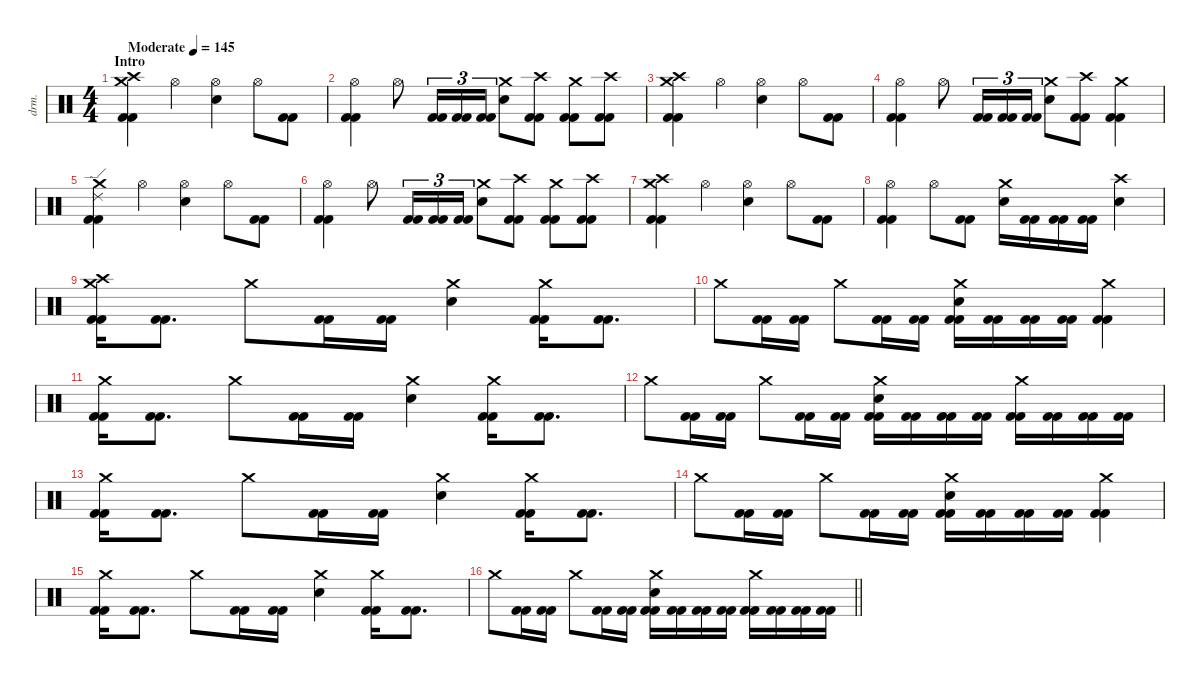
\defaultSystemsLayout 4
\hideDynamics
\bracketExtendMode nobrackets
\otherSystemsTrackNameOrientation horizontal
\track ("Chris Adler" "drm.") {instrument percussion}
\staff {score}
\articulation defaults
\ts (4 4)
\beaming (8 2 2 2 2)
\section ("" "Intro")
\tempo (145 "Moderate")
\clef neutral
\ks c
("Crash medium (hit)" "Crash high (hit)" "Kick (hit) 2" "Kick (hit) 2").4{dy f} "Hi-Hat (open)".4 ("Hi-Hat (open)" "Snare (hit) 2").4 "Hi-Hat (open)".8 ("Kick (hit) 2" "Kick (hit) 2").8 |
("Hi-Hat (open)" "Kick (hit) 2" "Kick (hit) 2").4 "Hi-Hat (open)".8 ("Kick (hit) 2" "Kick (hit) 2").16{tu (3 2)} ("Kick (hit) 2" "Kick (hit) 2").16{tu (3 2)} ("Kick (hit) 2" "Kick (hit) 2").16{tu (3 2)} ("Crash medium (hit)" "Snare (hit) 2").8 ("Crash high (hit)" "Kick (hit) 2" "Kick (hit) 2").8 ("Crash medium (hit)" "Kick (hit) 2" "Kick (hit) 2").8 ("Crash high (hit)" "Kick (hit) 2" "Kick (hit) 2").8 |
("Crash medium (hit)" "Crash high (hit)" "Kick (hit) 2" "Kick (hit) 2").4 "Hi-Hat (open)".4 ("Hi-Hat (open)" "Snare (hit) 2").4 "Hi-Hat (open)".8 ("Kick (hit) 2" "Kick (hit) 2").8 |
("Hi-Hat (open)" "Kick (hit) 2" "Kick (hit) 2").4 "Hi-Hat (open)".8 ("Kick (hit) 2" "Kick (hit) 2").16{tu (3 2)} ("Kick (hit) 2" "Kick (hit) 2").16{tu (3 2)} ("Kick (hit) 2" "Kick (hit) 2").16{tu (3 2)} ("Crash medium (hit)" "Snare (hit) 2").8 ("Crash high (hit)" "Kick (hit) 2" "Kick (hit) 2").8 ("Crash medium (hit)" "Kick (hit) 2" "Kick (hit) 2").4 |
("Crash medium (hit)" "Ride (edge) 2" "Kick (hit) 2" "Kick (hit) 2").4 "Hi-Hat (open)".4 ("Hi-Hat (open)" "Snare (hit) 2").4 "Hi-Hat (open)".8 ("Kick (hit) 2" "Kick (hit) 2").8 |
("Hi-Hat (open)" "Kick (hit) 2" "Kick (hit) 2").4 "Hi-Hat (open)".8 ("Kick (hit) 2" "Kick (hit) 2").16{tu (3 2)} ("Kick (hit) 2" "Kick (hit) 2").16{tu (3 2)} ("Kick (hit) 2" "Kick (hit) 2").16{tu (3 2)} ("Crash medium (hit)" "Snare (hit) 2").8 ("Crash high (hit)" "Kick (hit) 2" "Kick (hit) 2").8 ("Crash medium (hit)" "Kick (hit) 2" "Kick (hit) 2").8 ("Crash high (hit)" "Kick (hit) 2" "Kick (hit) 2").8 |
("Crash medium (hit)" "Crash high (hit)" "Kick (hit) 2" "Kick (hit) 2").4 "Hi-Hat (open)".4 ("Hi-Hat (open)" "Snare (hit) 2").4 "Hi-Hat (open)".8 ("Kick (hit) 2" "Kick (hit) 2").8 |
("Hi-Hat (open)" "Kick (hit) 2" "Kick (hit) 2").4 "Hi-Hat (open)".8 ("Kick (hit) 2" "Kick (hit) 2").8 ("Crash medium (hit)" "Snare (hit) 2").16 ("Kick (hit) 2" "Kick (hit) 2").16 ("Kick (hit) 2" "Kick (hit) 2").16 ("Kick (hit) 2" "Kick (hit) 2").16 ("Crash high (hit)" "Snare (hit) 2").4 |
("Crash medium (hit)" "Crash high (hit)" "Kick (hit) 2" "Kick (hit) 2").16 ("Kick (hit) 2" "Kick (hit) 2").8{d} "Crash medium (hit)".8 ("Kick (hit) 2" "Kick (hit) 2").16 ("Kick (hit) 2" "Kick (hit) 2").16 ("Crash medium (hit)" "Snare (hit) 2").4 ("Crash medium (hit)" "Kick (hit) 2" "Kick (hit) 2").16 ("Kick (hit) 2" "Kick (hit) 2").8{d} |
"Crash medium (hit)".8 ("Kick (hit) 2" "Kick (hit) 2").16 ("Kick (hit) 2" "Kick (hit) 2").16 "Crash medium (hit)".8 ("Kick (hit) 2" "Kick (hit) 2").16 ("Kick (hit) 2" "Kick (hit) 2").16 ("Crash medium (hit)" "Snare (hit) 2" "Kick (hit) 2" "Kick (hit) 2").16 ("Kick (hit) 2" "Kick (hit) 2").16 ("Kick (hit) 2" "Kick (hit) 2").16 ("Kick (hit) 2" "Kick (hit) 2").16 ("Crash medium (hit)" "Kick (hit) 2" "Kick (hit) 2").4 |
("Crash medium (hit)" "Kick (hit) 2" "Kick (hit) 2").16 ("Kick (hit) 2" "Kick (hit) 2").8{d} "Crash medium (hit)".8 ("Kick (hit) 2" "Kick (hit) 2").16 ("Kick (hit) 2" "Kick (hit) 2").16 ("Crash medium (hit)" "Snare (hit) 2").4 ("Crash medium (hit)" "Kick (hit) 2" "Kick (hit) 2").16 ("Kick (hit) 2" "Kick (hit) 2").8{d} |
"Crash medium (hit)".8 ("Kick (hit) 2" "Kick (hit) 2").16 ("Kick (hit) 2" "Kick (hit) 2").16 "Crash medium (hit)".8 ("Kick (hit) 2" "Kick (hit) 2").16 ("Kick (hit) 2" "Kick (hit) 2").16 ("Crash medium (hit)" "Snare (hit) 2" "Kick (hit) 2" "Kick (hit) 2").16 ("Kick (hit) 2" "Kick (hit) 2").16 ("Kick (hit) 2" "Kick (hit) 2").16 ("Kick (hit) 2" "Kick (hit) 2").16 ("Crash medium (hit)" "Kick (hit) 2" "Kick (hit) 2").16 ("Kick (hit) 2" "Kick (hit) 2").16 ("Kick (hit) 2" "Kick (hit) 2").16 ("Kick (hit) 2" "Kick (hit) 2").16 |
("Crash medium (hit)" "Kick (hit) 2" "Kick (hit) 2").16 ("Kick (hit) 2" "Kick (hit) 2").8{d} "Crash medium (hit)".8 ("Kick (hit) 2" "Kick (hit) 2").16 ("Kick (hit) 2" "Kick (hit) 2").16 ("Crash medium (hit)" "Snare (hit) 2").4 ("Crash medium (hit)" "Kick (hit) 2" "Kick (hit) 2").16 ("Kick (hit) 2" "Kick (hit) 2").8{d} |
"Crash medium (hit)".8 ("Kick (hit) 2" "Kick (hit) 2").16 ("Kick (hit) 2" "Kick (hit) 2").16 "Crash medium (hit)".8 ("Kick (hit) 2" "Kick (hit) 2").16 ("Kick (hit) 2" "Kick (hit) 2").16 ("Crash medium (hit)" "Snare (hit) 2" "Kick (hit) 2" "Kick (hit) 2").16 ("Kick (hit) 2" "Kick (hit) 2").16 ("Kick (hit) 2" "Kick (hit) 2").16 ("Kick (hit) 2" "Kick (hit) 2").16 ("Crash medium (hit)" "Kick (hit) 2" "Kick (hit) 2").4 |
("Crash medium (hit)" "Kick (hit) 2" "Kick (hit) 2").16 ("Kick (hit) 2" "Kick (hit) 2").8{d} "Crash medium (hit)".8 ("Kick (hit) 2" "Kick (hit) 2").16 ("Kick (hit) 2" "Kick (hit) 2").16 ("Crash medium (hit)" "Snare (hit) 2").4 ("Crash medium (hit)" "Kick (hit) 2" "Kick (hit) 2").16 ("Kick (hit) 2" "Kick (hit) 2").8{d} |
\barLineRight lightlight "Crash medium (hit)".8
("Kick (hit) 2" "Kick (hit) 2").16 ("Kick (hit) 2" "Kick (hit) 2").16 "Crash medium (hit)".8 ("Kick (hit) 2" "Kick (hit) 2").16 ("Kick (hit) 2" "Kick (hit) 2").16 ("Crash medium (hit)" "Snare (hit) 2" "Kick (hit) 2" "Kick (hit) 2").16 ("Kick (hit) 2" "Kick (hit) 2").16 ("Kick (hit) 2" "Kick (hit) 2").16 ("Kick (hit) 2" "Kick (hit) 2").16 ("Crash medium (hit)" "Kick (hit) 2" "Kick (hit) 2").16 ("Kick (hit) 2" "Kick (hit) 2").16 ("Kick (hit) 2" "Kick (hit) 2").16 ("Kick (hit) 2" "Kick (hit) 2").16
